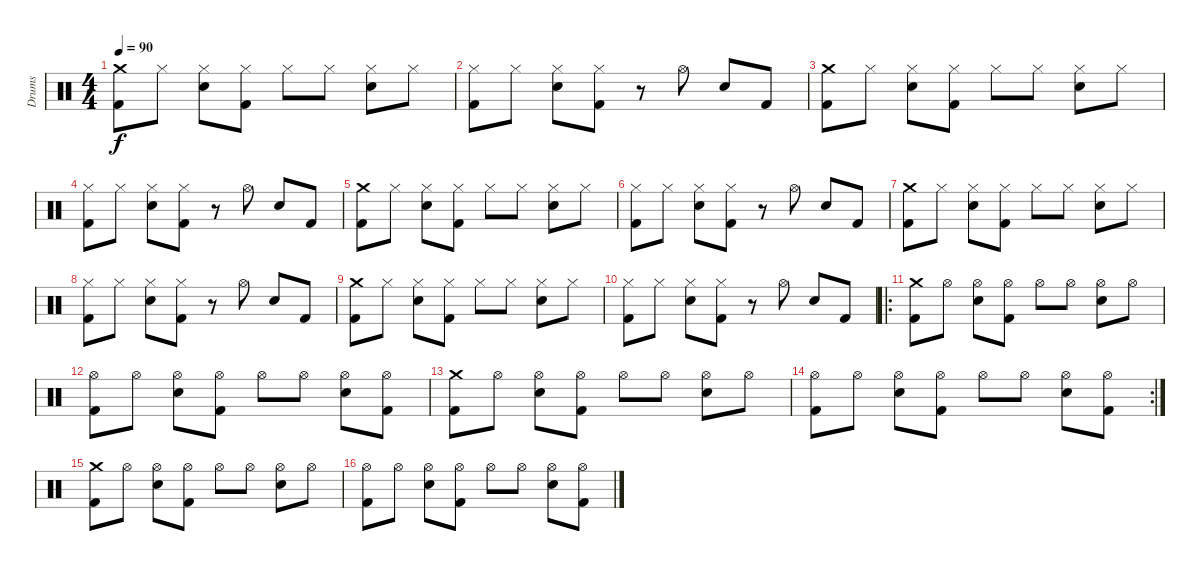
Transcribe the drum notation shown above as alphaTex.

\track ("Drums" "Drums") {instrument percussion}
\staff {score}
\articulation defaults
\ts (4 4)
\tempo 90
\clef neutral
\ks c
("Crash medium (hit)" "Kick (hit) 2").8{dy f} "Hi-Hat (closed)".8 ("Hi-Hat (closed)" "Snare (hit) 2").8 ("Hi-Hat (closed)" "Kick (hit) 2").8 "Hi-Hat (closed)".8 "Hi-Hat (closed)".8 ("Hi-Hat (closed)" "Snare (hit) 2").8 "Hi-Hat (closed)".8 |
("Hi-Hat (closed)" "Kick (hit) 2").8 "Hi-Hat (closed)".8 ("Hi-Hat (closed)" "Snare (hit) 2").8 ("Hi-Hat (closed)" "Kick (hit) 2").8 r.8 "Hi-Hat (open)".8 "Snare (hit) 2".8 "Kick (hit) 2".8 |
("Crash medium (hit)" "Kick (hit) 2").8 "Hi-Hat (closed)".8 ("Hi-Hat (closed)" "Snare (hit) 2").8 ("Hi-Hat (closed)" "Kick (hit) 2").8 "Hi-Hat (closed)".8 "Hi-Hat (closed)".8 ("Hi-Hat (closed)" "Snare (hit) 2").8 "Hi-Hat (closed)".8 |
("Hi-Hat (closed)" "Kick (hit) 2").8 "Hi-Hat (closed)".8 ("Hi-Hat (closed)" "Snare (hit) 2").8 ("Hi-Hat (closed)" "Kick (hit) 2").8 r.8 "Hi-Hat (open)".8 "Snare (hit) 2".8 "Kick (hit) 2".8 |
("Crash medium (hit)" "Kick (hit) 2").8 "Hi-Hat (closed)".8 ("Hi-Hat (closed)" "Snare (hit) 2").8 ("Hi-Hat (closed)" "Kick (hit) 2").8 "Hi-Hat (closed)".8 "Hi-Hat (closed)".8 ("Hi-Hat (closed)" "Snare (hit) 2").8 "Hi-Hat (closed)".8 |
("Hi-Hat (closed)" "Kick (hit) 2").8 "Hi-Hat (closed)".8 ("Hi-Hat (closed)" "Snare (hit) 2").8 ("Hi-Hat (closed)" "Kick (hit) 2").8 r.8 "Hi-Hat (open)".8 "Snare (hit) 2".8 "Kick (hit) 2".8 |
("Crash medium (hit)" "Kick (hit) 2").8 "Hi-Hat (closed)".8 ("Hi-Hat (closed)" "Snare (hit) 2").8 ("Hi-Hat (closed)" "Kick (hit) 2").8 "Hi-Hat (closed)".8 "Hi-Hat (closed)".8 ("Hi-Hat (closed)" "Snare (hit) 2").8 "Hi-Hat (closed)".8 |
("Hi-Hat (closed)" "Kick (hit) 2").8 "Hi-Hat (closed)".8 ("Hi-Hat (closed)" "Snare (hit) 2").8 ("Hi-Hat (closed)" "Kick (hit) 2").8 r.8 "Hi-Hat (open)".8 "Snare (hit) 2".8 "Kick (hit) 2".8 |
("Crash medium (hit)" "Kick (hit) 2").8 "Hi-Hat (closed)".8 ("Hi-Hat (closed)" "Snare (hit) 2").8 ("Hi-Hat (closed)" "Kick (hit) 2").8 "Hi-Hat (closed)".8 "Hi-Hat (closed)".8 ("Hi-Hat (closed)" "Snare (hit) 2").8 "Hi-Hat (closed)".8 |
("Hi-Hat (closed)" "Kick (hit) 2").8 "Hi-Hat (closed)".8 ("Hi-Hat (closed)" "Snare (hit) 2").8 ("Hi-Hat (closed)" "Kick (hit) 2").8 r.8 "Hi-Hat (open)".8 "Snare (hit) 2".8 "Kick (hit) 2".8 |
\ro
("Crash medium (hit)" "Kick (hit) 2").8 "Hi-Hat (open)".8 ("Hi-Hat (open)" "Snare (hit) 2").8 ("Hi-Hat (open)" "Kick (hit) 2").8 "Hi-Hat (open)".8 "Hi-Hat (open)".8 ("Hi-Hat (open)" "Snare (hit) 2").8 "Hi-Hat (open)".8 |
("Hi-Hat (open)" "Kick (hit) 2").8 "Hi-Hat (open)".8 ("Hi-Hat (open)" "Snare (hit) 2").8 ("Hi-Hat (open)" "Kick (hit) 2").8 "Hi-Hat (open)".8 "Hi-Hat (open)".8 ("Hi-Hat (open)" "Snare (hit) 2").8 ("Hi-Hat (open)" "Kick (hit) 2").8 |
("Crash medium (hit)" "Kick (hit) 2").8 "Hi-Hat (open)".8 ("Hi-Hat (open)" "Snare (hit) 2").8 ("Hi-Hat (open)" "Kick (hit) 2").8 "Hi-Hat (open)".8 "Hi-Hat (open)".8 ("Hi-Hat (open)" "Snare (hit) 2").8 "Hi-Hat (open)".8 |
\rc 2
("Hi-Hat (open)" "Kick (hit) 2").8 "Hi-Hat (open)".8 ("Hi-Hat (open)" "Snare (hit) 2").8 ("Hi-Hat (open)" "Kick (hit) 2").8 "Hi-Hat (open)".8 "Hi-Hat (open)".8 ("Hi-Hat (open)" "Snare (hit) 2").8 ("Hi-Hat (open)" "Kick (hit) 2").8 |
("Crash medium (hit)" "Kick (hit) 2").8 "Hi-Hat (open)".8 ("Hi-Hat (open)" "Snare (hit) 2").8 ("Hi-Hat (open)" "Kick (hit) 2").8 "Hi-Hat (open)".8 "Hi-Hat (open)".8 ("Hi-Hat (open)" "Snare (hit) 2").8 "Hi-Hat (open)".8 |
("Hi-Hat (open)" "Kick (hit) 2").8 "Hi-Hat (open)".8 ("Hi-Hat (open)" "Snare (hit) 2").8 ("Hi-Hat (open)" "Kick (hit) 2").8 "Hi-Hat (open)".8 "Hi-Hat (open)".8 ("Hi-Hat (open)" "Snare (hit) 2").8 ("Hi-Hat (open)" "Kick (hit) 2").8
